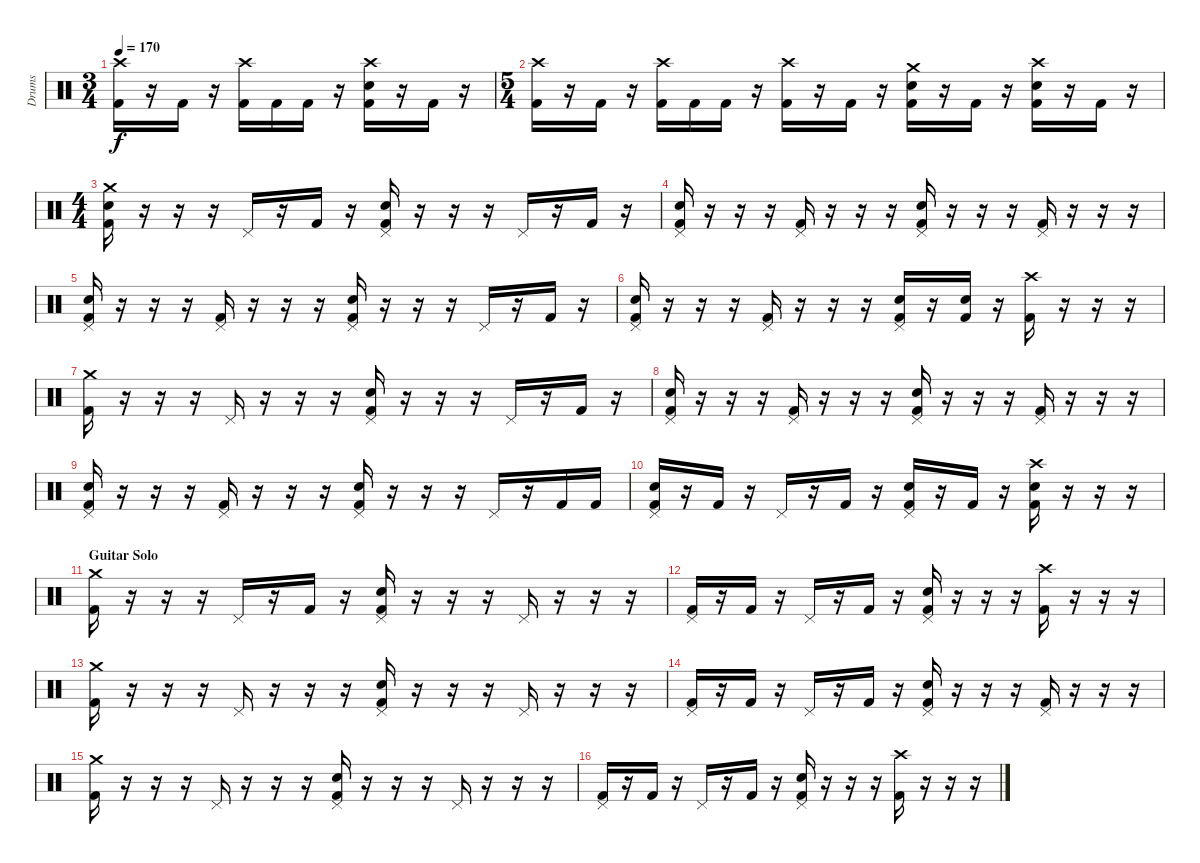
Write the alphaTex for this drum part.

\track ("Drums" "Drums") {instrument percussion}
\staff {score}
\articulation defaults
\ts (3 4)
\tempo 170
\clef neutral
\ks c
("Crash high (hit)" "Kick (hit) 2").16{dy f} r.16 "Kick (hit) 2".16 r.16 ("Crash high (hit)" "Kick (hit) 2").16 "Kick (hit) 2".16 "Kick (hit) 2".16 r.16 ("Crash high (hit)" "Electric Snare (hit)" "Kick (hit) 2").16 r.16 "Kick (hit) 2".16 r.16 |
\ts (5 4)
("Crash high (hit)" "Kick (hit) 2").16 r.16 "Kick (hit) 2".16 r.16 ("Crash high (hit)" "Kick (hit) 2").16 "Kick (hit) 2".16 "Kick (hit) 2".16 r.16 ("Crash high (hit)" "Kick (hit) 2").16 r.16 "Kick (hit) 2".16 r.16 ("Crash medium (hit)" "Electric Snare (hit)" "Kick (hit) 2").16 r.16 "Kick (hit) 2".16 r.16 ("Crash high (hit)" "Electric Snare (hit)" "Kick (hit) 2").16 r.16 "Kick (hit) 2".16 r.16 |
\ts (4 4)
\section ("" "")
("Crash medium (hit)" "Electric Snare (hit)" "Kick (hit) 2").16 r.16 r.16 r.16 "Pedal Hi-Hat (hit)".16 r.16 "Kick (hit) 2".16 r.16 ("Pedal Hi-Hat (hit)" "Electric Snare (hit)" "Kick (hit) 2").16 r.16 r.16 r.16 "Pedal Hi-Hat (hit)".16 r.16 "Kick (hit) 2".16 r.16 |
("Pedal Hi-Hat (hit)" "Electric Snare (hit)" "Kick (hit) 2").16 r.16 r.16 r.16 ("Pedal Hi-Hat (hit)" "Kick (hit) 2").16 r.16 r.16 r.16 ("Pedal Hi-Hat (hit)" "Electric Snare (hit)" "Kick (hit) 2").16 r.16 r.16 r.16 ("Pedal Hi-Hat (hit)" "Kick (hit) 2").16 r.16 r.16 r.16 |
("Pedal Hi-Hat (hit)" "Electric Snare (hit)" "Kick (hit) 2").16 r.16 r.16 r.16 ("Pedal Hi-Hat (hit)" "Kick (hit) 2").16 r.16 r.16 r.16 ("Pedal Hi-Hat (hit)" "Electric Snare (hit)" "Kick (hit) 2").16 r.16 r.16 r.16 "Pedal Hi-Hat (hit)".16 r.16 "Kick (hit) 2".16 r.16 |
("Pedal Hi-Hat (hit)" "Electric Snare (hit)" "Kick (hit) 2").16 r.16 r.16 r.16 ("Pedal Hi-Hat (hit)" "Kick (hit) 2").16 r.16 r.16 r.16 ("Pedal Hi-Hat (hit)" "Electric Snare (hit)" "Kick (hit) 2").16 r.16 ("Electric Snare (hit)" "Kick (hit) 2").16 r.16 ("Crash high (hit)" "Kick (hit) 2").16 r.16 r.16 r.16 |
("Crash medium (hit)" "Kick (hit) 2").16 r.16 r.16 r.16 "Pedal Hi-Hat (hit)".16 r.16 r.16 r.16 ("Pedal Hi-Hat (hit)" "Electric Snare (hit)" "Kick (hit) 2").16 r.16 r.16 r.16 "Pedal Hi-Hat (hit)".16 r.16 "Kick (hit) 2".16 r.16 |
("Pedal Hi-Hat (hit)" "Electric Snare (hit)" "Kick (hit) 2").16 r.16 r.16 r.16 ("Pedal Hi-Hat (hit)" "Kick (hit) 2").16 r.16 r.16 r.16 ("Pedal Hi-Hat (hit)" "Electric Snare (hit)" "Kick (hit) 2").16 r.16 r.16 r.16 ("Pedal Hi-Hat (hit)" "Kick (hit) 2").16 r.16 r.16 r.16 |
("Pedal Hi-Hat (hit)" "Electric Snare (hit)" "Kick (hit) 2").16 r.16 r.16 r.16 ("Pedal Hi-Hat (hit)" "Kick (hit) 2").16 r.16 r.16 r.16 ("Pedal Hi-Hat (hit)" "Electric Snare (hit)" "Kick (hit) 2").16 r.16 r.16 r.16 "Pedal Hi-Hat (hit)".16 r.16 "Kick (hit) 2".16 "Kick (hit) 2".16 |
("Pedal Hi-Hat (hit)" "Electric Snare (hit)" "Kick (hit) 2").16 r.16 "Kick (hit) 2".16 r.16 "Pedal Hi-Hat (hit)".16 r.16 "Kick (hit) 2".16 r.16 ("Pedal Hi-Hat (hit)" "Electric Snare (hit)" "Kick (hit) 2").16 r.16 "Kick (hit) 2".16 r.16 ("Crash high (hit)" "Electric Snare (hit)" "Kick (hit) 2").16 r.16 r.16 r.16 |
\section ("" "Guitar Solo")
("Crash medium (hit)" "Kick (hit) 2").16 r.16 r.16 r.16 "Pedal Hi-Hat (hit)".16 r.16 "Kick (hit) 2".16 r.16 ("Pedal Hi-Hat (hit)" "Electric Snare (hit)" "Kick (hit) 2").16 r.16 r.16 r.16 "Pedal Hi-Hat (hit)".16 r.16 r.16 r.16 |
("Pedal Hi-Hat (hit)" "Kick (hit) 2").16 r.16 "Kick (hit) 2".16 r.16 "Pedal Hi-Hat (hit)".16 r.16 "Kick (hit) 2".16 r.16 ("Pedal Hi-Hat (hit)" "Electric Snare (hit)" "Kick (hit) 2").16 r.16 r.16 r.16 ("Crash high (hit)" "Kick (hit) 2").16 r.16 r.16 r.16 |
("Crash medium (hit)" "Kick (hit) 2").16 r.16 r.16 r.16 "Pedal Hi-Hat (hit)".16 r.16 r.16 r.16 ("Pedal Hi-Hat (hit)" "Electric Snare (hit)" "Kick (hit) 2").16 r.16 r.16 r.16 "Pedal Hi-Hat (hit)".16 r.16 r.16 r.16 |
("Pedal Hi-Hat (hit)" "Kick (hit) 2").16 r.16 "Kick (hit) 2".16 r.16 "Pedal Hi-Hat (hit)".16 r.16 "Kick (hit) 2".16 r.16 ("Pedal Hi-Hat (hit)" "Electric Snare (hit)" "Kick (hit) 2").16 r.16 r.16 r.16 ("Pedal Hi-Hat (hit)" "Kick (hit) 2").16 r.16 r.16 r.16 |
("Crash medium (hit)" "Kick (hit) 2").16 r.16 r.16 r.16 "Pedal Hi-Hat (hit)".16 r.16 r.16 r.16 ("Pedal Hi-Hat (hit)" "Electric Snare (hit)" "Kick (hit) 2").16 r.16 r.16 r.16 "Pedal Hi-Hat (hit)".16 r.16 r.16 r.16 |
("Pedal Hi-Hat (hit)" "Kick (hit) 2").16 r.16 "Kick (hit) 2".16 r.16 "Pedal Hi-Hat (hit)".16 r.16 "Kick (hit) 2".16 r.16 ("Pedal Hi-Hat (hit)" "Electric Snare (hit)" "Kick (hit) 2").16 r.16 r.16 r.16 ("Crash high (hit)" "Kick (hit) 2").16 r.16 r.16 r.16
